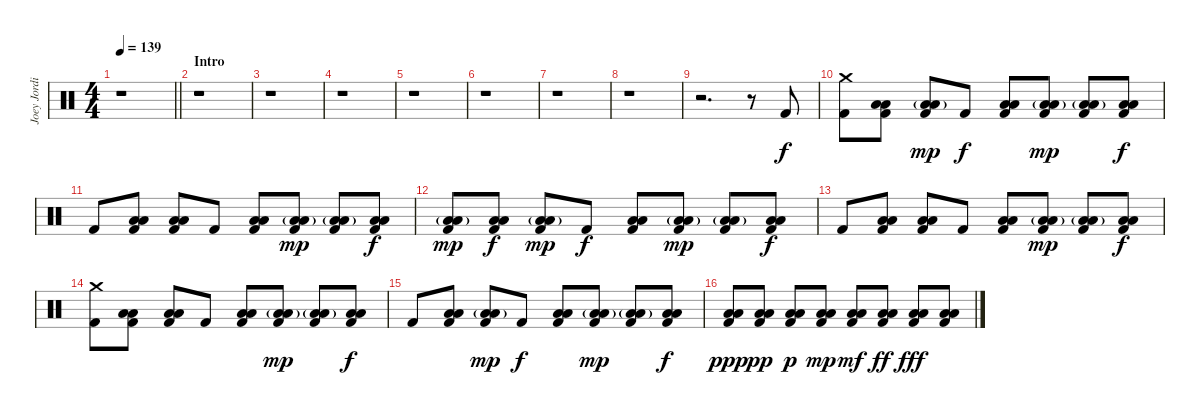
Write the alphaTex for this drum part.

\track ("Joey Jordison" "Joey Jordi") {instrument percussion}
\staff {score}
\articulation defaults
\ts (4 4)
\tempo 139
\clef neutral
\barLineRight lightlight
\ks c
r.1{dy f} |
\section ("" "Intro")
r.1 |
r.1 |
r.1 |
r.1 |
r.1 |
r.1 |
r.1 |
r.2{d} r.8 "Kick (hit) 2".8 |
("Crash medium (hit)" "Kick (hit) 2").8 ("Low Tom (hit)" "Low Floor Tom (hit)" "Kick (hit) 2").8 ("Low Tom (hit)"{g} "Low Floor Tom (hit)"{g} "Kick (hit) 2").8{dy mp} "Kick (hit) 2".8{dy f} ("Low Tom (hit)" "Low Floor Tom (hit)" "Kick (hit) 2").8 ("Low Tom (hit)"{g} "Low Floor Tom (hit)"{g} "Kick (hit) 2").8{dy mp} ("Low Tom (hit)"{g} "Low Floor Tom (hit)"{g} "Kick (hit) 2").8 ("Low Tom (hit)" "Low Floor Tom (hit)" "Kick (hit) 2").8{dy f} |
"Kick (hit) 2".8 ("Low Tom (hit)" "Low Floor Tom (hit)" "Kick (hit) 2").8 ("Low Tom (hit)" "Low Floor Tom (hit)" "Kick (hit) 2").8 "Kick (hit) 2".8 ("Low Tom (hit)" "Low Floor Tom (hit)" "Kick (hit) 2").8 ("Low Tom (hit)"{g} "Low Floor Tom (hit)"{g} "Kick (hit) 2").8{dy mp} ("Low Tom (hit)"{g} "Low Floor Tom (hit)"{g} "Kick (hit) 2").8 ("Low Tom (hit)" "Low Floor Tom (hit)" "Kick (hit) 2").8{dy f} |
("Low Tom (hit)"{g} "Low Floor Tom (hit)"{g} "Kick (hit) 2").8{dy mp} ("Low Tom (hit)" "Low Floor Tom (hit)" "Kick (hit) 2").8{dy f} ("Low Tom (hit)"{g} "Low Floor Tom (hit)"{g} "Kick (hit) 2").8{dy mp} "Kick (hit) 2".8{dy f} ("Low Tom (hit)" "Low Floor Tom (hit)" "Kick (hit) 2").8 ("Low Tom (hit)"{g} "Low Floor Tom (hit)"{g} "Kick (hit) 2").8{dy mp} ("Low Tom (hit)"{g} "Low Floor Tom (hit)"{g} "Kick (hit) 2").8 ("Low Tom (hit)" "Low Floor Tom (hit)" "Kick (hit) 2").8{dy f} |
"Kick (hit) 2".8 ("Low Tom (hit)" "Low Floor Tom (hit)" "Kick (hit) 2").8 ("Low Tom (hit)" "Low Floor Tom (hit)" "Kick (hit) 2").8 "Kick (hit) 2".8 ("Low Tom (hit)" "Low Floor Tom (hit)" "Kick (hit) 2").8 ("Low Tom (hit)"{g} "Low Floor Tom (hit)"{g} "Kick (hit) 2").8{dy mp} ("Low Tom (hit)"{g} "Low Floor Tom (hit)"{g} "Kick (hit) 2").8 ("Low Tom (hit)" "Low Floor Tom (hit)" "Kick (hit) 2").8{dy f} |
("Crash medium (hit)" "Kick (hit) 2").8 ("Low Tom (hit)" "Low Floor Tom (hit)" "Kick (hit) 2").8 ("Low Tom (hit)" "Low Floor Tom (hit)" "Kick (hit) 2").8 "Kick (hit) 2".8 ("Low Tom (hit)" "Low Floor Tom (hit)" "Kick (hit) 2").8 ("Low Tom (hit)"{g} "Low Floor Tom (hit)"{g} "Kick (hit) 2").8{dy mp} ("Low Tom (hit)"{g} "Low Floor Tom (hit)"{g} "Kick (hit) 2").8 ("Low Tom (hit)" "Low Floor Tom (hit)" "Kick (hit) 2").8{dy f} |
"Kick (hit) 2".8 ("Low Tom (hit)" "Low Floor Tom (hit)" "Kick (hit) 2").8 ("Low Tom (hit)"{g} "Low Floor Tom (hit)"{g} "Kick (hit) 2").8{dy mp} "Kick (hit) 2".8{dy f} ("Low Tom (hit)" "Low Floor Tom (hit)" "Kick (hit) 2").8 ("Low Tom (hit)"{g} "Low Floor Tom (hit)"{g} "Kick (hit) 2").8{dy mp} ("Low Tom (hit)"{g} "Low Floor Tom (hit)"{g} "Kick (hit) 2").8 ("Low Tom (hit)" "Low Floor Tom (hit)" "Kick (hit) 2").8{dy f} |
("Low Tom (hit)" "Low Floor Tom (hit)" "Kick (hit) 2").8{dy ppp} ("Low Tom (hit)" "Low Floor Tom (hit)" "Kick (hit) 2").8{dy pp} ("Low Tom (hit)" "Low Floor Tom (hit)" "Kick (hit) 2").8{dy p} ("Low Tom (hit)" "Low Floor Tom (hit)" "Kick (hit) 2").8{dy mp} ("Low Tom (hit)" "Low Floor Tom (hit)" "Kick (hit) 2").8{dy mf} ("Low Tom (hit)" "Low Floor Tom (hit)" "Kick (hit) 2").8{dy ff} ("Low Tom (hit)" "Low Floor Tom (hit)" "Kick (hit) 2").8{dy fff} ("Low Tom (hit)" "Low Floor Tom (hit)" "Kick (hit) 2").8
